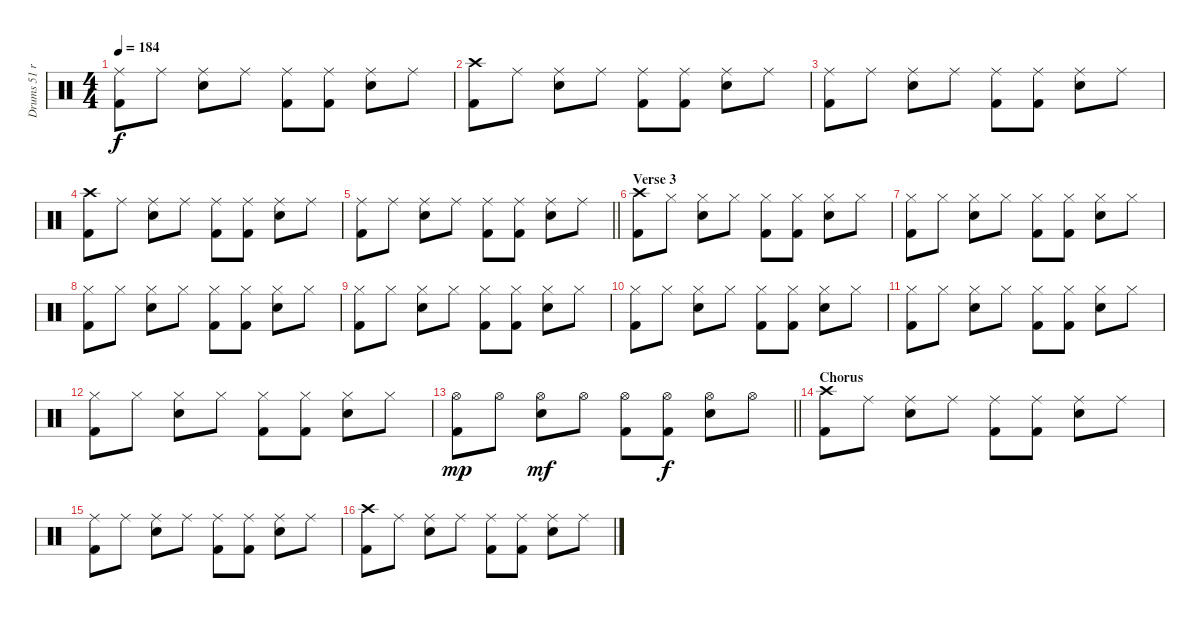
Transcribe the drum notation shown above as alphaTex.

\track ("Drums 51 ride" "Drums 51 r") {mute instrument percussion}
\staff {score}
\articulation defaults
\ts (4 4)
\tempo 184
\clef neutral
\ks c
("Ride (middle)" "Kick (hit) 2").8{dy f} "Ride (middle)".8 ("Ride (middle)" "Snare (hit) 2").8 "Ride (middle)".8 ("Ride (middle)" "Kick (hit) 2").8 ("Ride (middle)" "Kick (hit) 2").8 ("Ride (middle)" "Snare (hit) 2").8 "Ride (middle)".8 |
("Crash high (hit)" "Kick (hit) 2").8 "Ride (middle)".8 ("Ride (middle)" "Snare (hit) 2").8 "Ride (middle)".8 ("Ride (middle)" "Kick (hit) 2").8 ("Ride (middle)" "Kick (hit) 2").8 ("Ride (middle)" "Snare (hit) 2").8 "Ride (middle)".8 |
("Ride (middle)" "Kick (hit) 2").8 "Ride (middle)".8 ("Ride (middle)" "Snare (hit) 2").8 "Ride (middle)".8 ("Ride (middle)" "Kick (hit) 2").8 ("Ride (middle)" "Kick (hit) 2").8 ("Ride (middle)" "Snare (hit) 2").8 "Ride (middle)".8 |
("Crash high (hit)" "Kick (hit) 2").8 "Ride (middle)".8 ("Ride (middle)" "Snare (hit) 2").8 "Ride (middle)".8 ("Ride (middle)" "Kick (hit) 2").8 ("Ride (middle)" "Kick (hit) 2").8 ("Ride (middle)" "Snare (hit) 2").8 "Ride (middle)".8 |
\barLineRight lightlight
("Ride (middle)" "Kick (hit) 2").8 "Ride (middle)".8 ("Ride (middle)" "Snare (hit) 2").8 "Ride (middle)".8 ("Ride (middle)" "Kick (hit) 2").8 ("Ride (middle)" "Kick (hit) 2").8 ("Ride (middle)" "Snare (hit) 2").8 "Ride (middle)".8 |
\section ("" "Verse 3")
("Crash high (hit)" "Kick (hit) 2").8 "Hi-Hat (closed)".8 ("Hi-Hat (closed)" "Snare (hit) 2").8 "Hi-Hat (closed)".8 ("Hi-Hat (closed)" "Kick (hit) 2").8 ("Hi-Hat (closed)" "Kick (hit) 2").8 ("Hi-Hat (closed)" "Snare (hit) 2").8 "Hi-Hat (closed)".8 |
("Hi-Hat (closed)" "Kick (hit) 2").8 "Hi-Hat (closed)".8 ("Hi-Hat (closed)" "Snare (hit) 2").8 "Hi-Hat (closed)".8 ("Hi-Hat (closed)" "Kick (hit) 2").8 ("Hi-Hat (closed)" "Kick (hit) 2").8 ("Hi-Hat (closed)" "Snare (hit) 2").8 "Hi-Hat (closed)".8 |
("Hi-Hat (closed)" "Kick (hit) 2").8 "Hi-Hat (closed)".8 ("Hi-Hat (closed)" "Snare (hit) 2").8 "Hi-Hat (closed)".8 ("Hi-Hat (closed)" "Kick (hit) 2").8 ("Hi-Hat (closed)" "Kick (hit) 2").8 ("Hi-Hat (closed)" "Snare (hit) 2").8 "Hi-Hat (closed)".8 |
("Hi-Hat (closed)" "Kick (hit) 2").8 "Hi-Hat (closed)".8 ("Hi-Hat (closed)" "Snare (hit) 2").8 "Hi-Hat (closed)".8 ("Hi-Hat (closed)" "Kick (hit) 2").8 ("Hi-Hat (closed)" "Kick (hit) 2").8 ("Hi-Hat (closed)" "Snare (hit) 2").8 "Hi-Hat (closed)".8 |
("Hi-Hat (closed)" "Kick (hit) 2").8 "Hi-Hat (closed)".8 ("Hi-Hat (closed)" "Snare (hit) 2").8 "Hi-Hat (closed)".8 ("Hi-Hat (closed)" "Kick (hit) 2").8 ("Hi-Hat (closed)" "Kick (hit) 2").8 ("Hi-Hat (closed)" "Snare (hit) 2").8 "Hi-Hat (closed)".8 |
("Hi-Hat (closed)" "Kick (hit) 2").8 "Hi-Hat (closed)".8 ("Hi-Hat (closed)" "Snare (hit) 2").8 "Hi-Hat (closed)".8 ("Hi-Hat (closed)" "Kick (hit) 2").8 ("Hi-Hat (closed)" "Kick (hit) 2").8 ("Hi-Hat (closed)" "Snare (hit) 2").8 "Hi-Hat (closed)".8 |
("Hi-Hat (closed)" "Kick (hit) 2").8 "Hi-Hat (closed)".8 ("Hi-Hat (closed)" "Snare (hit) 2").8 "Hi-Hat (closed)".8 ("Hi-Hat (closed)" "Kick (hit) 2").8 ("Hi-Hat (closed)" "Kick (hit) 2").8 ("Hi-Hat (closed)" "Snare (hit) 2").8 "Hi-Hat (closed)".8 |
\barLineRight lightlight
("Hi-Hat (open)" "Kick (hit) 2").8{dy mp} "Hi-Hat (open)".8 ("Hi-Hat (open)" "Snare (hit) 2").8{dy mf} "Hi-Hat (open)".8 ("Hi-Hat (open)" "Kick (hit) 2").8 ("Hi-Hat (open)" "Kick (hit) 2").8{dy f} ("Hi-Hat (open)" "Snare (hit) 2").8 "Hi-Hat (open)".8 |
\section ("" "Chorus")
("Crash high (hit)" "Kick (hit) 2").8 "Ride (middle)".8 ("Ride (middle)" "Snare (hit) 2").8 "Ride (middle)".8 ("Ride (middle)" "Kick (hit) 2").8 ("Ride (middle)" "Kick (hit) 2").8 ("Ride (middle)" "Snare (hit) 2").8 "Ride (middle)".8 |
("Ride (middle)" "Kick (hit) 2").8 "Ride (middle)".8 ("Ride (middle)" "Snare (hit) 2").8 "Ride (middle)".8 ("Ride (middle)" "Kick (hit) 2").8 ("Ride (middle)" "Kick (hit) 2").8 ("Ride (middle)" "Snare (hit) 2").8 "Ride (middle)".8 |
("Crash high (hit)" "Kick (hit) 2").8 "Ride (middle)".8 ("Ride (middle)" "Snare (hit) 2").8 "Ride (middle)".8 ("Ride (middle)" "Kick (hit) 2").8 ("Ride (middle)" "Kick (hit) 2").8 ("Ride (middle)" "Snare (hit) 2").8 "Ride (middle)".8
